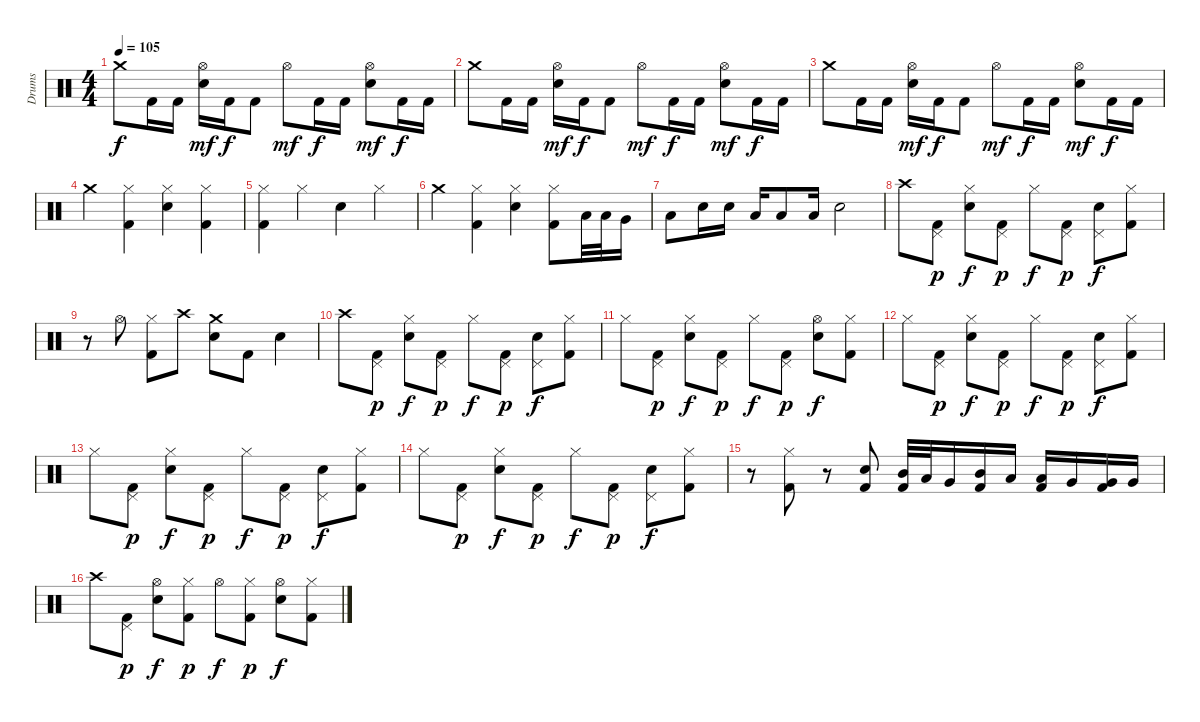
\track ("Drums" "Drums") {instrument percussion}
\staff {score}
\articulation defaults
\ts (4 4)
\tempo 105
\clef neutral
\ks c "Crash medium (hit)".8{dy f} "Kick (hit) 2".16 "Kick (hit) 2".16
("Hi-Hat (open)" "Electric Snare (hit)").16{dy mf} "Kick (hit) 2".16{dy f} "Kick (hit) 2".8 "Hi-Hat (open)".8{dy mf} "Kick (hit) 2".16{dy f} "Kick (hit) 2".16 ("Hi-Hat (open)" "Electric Snare (hit)").8{dy mf} "Kick (hit) 2".16{dy f} "Kick (hit) 2".16 |
"Crash medium (hit)".8 "Kick (hit) 2".16 "Kick (hit) 2".16 ("Hi-Hat (open)" "Electric Snare (hit)").16{dy mf} "Kick (hit) 2".16{dy f} "Kick (hit) 2".8 "Hi-Hat (open)".8{dy mf} "Kick (hit) 2".16{dy f} "Kick (hit) 2".16 ("Hi-Hat (open)" "Electric Snare (hit)").8{dy mf} "Kick (hit) 2".16{dy f} "Kick (hit) 2".16 |
"Crash medium (hit)".8 "Kick (hit) 2".16 "Kick (hit) 2".16 ("Hi-Hat (open)" "Electric Snare (hit)").16{dy mf} "Kick (hit) 2".16{dy f} "Kick (hit) 2".8 "Hi-Hat (open)".8{dy mf} "Kick (hit) 2".16{dy f} "Kick (hit) 2".16 ("Hi-Hat (open)" "Electric Snare (hit)").8{dy mf} "Kick (hit) 2".16{dy f} "Kick (hit) 2".16 |
"Crash medium (hit)".4 ("Hi-Hat (closed)" "Kick (hit) 2").4 ("Hi-Hat (closed)" "Electric Snare (hit)").4 ("Hi-Hat (closed)" "Kick (hit) 2").4 |
("Hi-Hat (closed)" "Kick (hit) 2").4 "Hi-Hat (closed)".4 "Electric Snare (hit)".4 "Hi-Hat (closed)".4 |
"Crash medium (hit)".4 ("Hi-Hat (closed)" "Kick (hit) 2").4 ("Hi-Hat (closed)" "Electric Snare (hit)").4 ("Hi-Hat (closed)" "Kick (hit) 2").8 "Low Tom (hit)".32 "Low Tom (hit)".32 "Very Low Tom (hit)".16 |
"Low Tom (hit)".8 "Electric Snare (hit)".16 "Electric Snare (hit)".16 "Low Tom (hit)".16 "Low Tom (hit)".8 "Low Tom (hit)".16 "Electric Snare (hit)".2 |
"Crash high (hit)".8 ("Pedal Hi-Hat (hit)" "Kick (hit) 2").8{dy p} ("Electric Snare (hit)" "Hi-Hat (closed)").8{dy f} ("Pedal Hi-Hat (hit)" "Kick (hit) 2").8{dy p} "Hi-Hat (closed)".8{dy f} ("Pedal Hi-Hat (hit)" "Kick (hit) 2").8{dy p} ("Electric Snare (hit)" "Pedal Hi-Hat (hit)").8{dy f} ("Hi-Hat (closed)" "Kick (hit) 2").8 |
r.8 "Hi-Hat (open)".8 ("Hi-Hat (closed)" "Kick (hit) 2").8 "Crash high (hit)".8 ("Crash medium (hit)" "Electric Snare (hit)").8 "Kick (hit) 2".8 "Electric Snare (hit)".4 |
"Crash high (hit)".8 ("Pedal Hi-Hat (hit)" "Kick (hit) 2").8{dy p} ("Electric Snare (hit)" "Hi-Hat (closed)").8{dy f} ("Pedal Hi-Hat (hit)" "Kick (hit) 2").8{dy p} "Hi-Hat (closed)".8{dy f} ("Pedal Hi-Hat (hit)" "Kick (hit) 2").8{dy p} ("Electric Snare (hit)" "Pedal Hi-Hat (hit)").8{dy f} ("Hi-Hat (closed)" "Kick (hit) 2").8 |
"Hi-Hat (closed)".8 ("Pedal Hi-Hat (hit)" "Kick (hit) 2").8{dy p} ("Electric Snare (hit)" "Hi-Hat (closed)").8{dy f} ("Pedal Hi-Hat (hit)" "Kick (hit) 2").8{dy p} "Hi-Hat (closed)".8{dy f} ("Pedal Hi-Hat (hit)" "Kick (hit) 2").8{dy p} ("Electric Snare (hit)" "Hi-Hat (open)").8{dy f} ("Hi-Hat (closed)" "Kick (hit) 2").8 |
"Hi-Hat (closed)".8 ("Pedal Hi-Hat (hit)" "Kick (hit) 2").8{dy p} ("Electric Snare (hit)" "Hi-Hat (closed)").8{dy f} ("Pedal Hi-Hat (hit)" "Kick (hit) 2").8{dy p} "Hi-Hat (closed)".8{dy f} ("Pedal Hi-Hat (hit)" "Kick (hit) 2").8{dy p} ("Electric Snare (hit)" "Pedal Hi-Hat (hit)").8{dy f} ("Hi-Hat (closed)" "Kick (hit) 2").8 |
"Hi-Hat (closed)".8 ("Pedal Hi-Hat (hit)" "Kick (hit) 2").8{dy p} ("Electric Snare (hit)" "Hi-Hat (closed)").8{dy f} ("Pedal Hi-Hat (hit)" "Kick (hit) 2").8{dy p} "Hi-Hat (closed)".8{dy f} ("Pedal Hi-Hat (hit)" "Kick (hit) 2").8{dy p} ("Electric Snare (hit)" "Pedal Hi-Hat (hit)").8{dy f} ("Hi-Hat (closed)" "Kick (hit) 2").8 |
"Hi-Hat (closed)".8 ("Pedal Hi-Hat (hit)" "Kick (hit) 2").8{dy p} ("Electric Snare (hit)" "Hi-Hat (closed)").8{dy f} ("Pedal Hi-Hat (hit)" "Kick (hit) 2").8{dy p} "Hi-Hat (closed)".8{dy f} ("Pedal Hi-Hat (hit)" "Kick (hit) 2").8{dy p} ("Electric Snare (hit)" "Pedal Hi-Hat (hit)").8{dy f} ("Hi-Hat (closed)" "Kick (hit) 2").8 |
r.8 ("Hi-Hat (closed)" "Kick (hit) 2").8 r.8 ("Electric Snare (hit)" "Kick (hit) 2").8 ("Mid Tom (hit)" "Kick (hit) 2").32 "Low Tom (hit)".32 "Very Low Tom (hit)".16 ("Mid Tom (hit)" "Kick (hit) 2").16 "Low Tom (hit)".16 ("Low Tom (hit)" "Kick (hit) 2").16 "Very Low Tom (hit)".16 ("Very Low Tom (hit)" "Kick (hit) 2").16 "Very Low Tom (hit)".16 |
"Crash high (hit)".8 ("Pedal Hi-Hat (hit)" "Kick (hit) 2").8{dy p} ("Electric Snare (hit)" "Hi-Hat (open)").8{dy f} ("Hi-Hat (closed)" "Kick (hit) 2").8{dy p} "Hi-Hat (open)".8{dy f} ("Hi-Hat (closed)" "Kick (hit) 2").8{dy p} ("Electric Snare (hit)" "Hi-Hat (open)").8{dy f} ("Hi-Hat (closed)" "Kick (hit) 2").8
